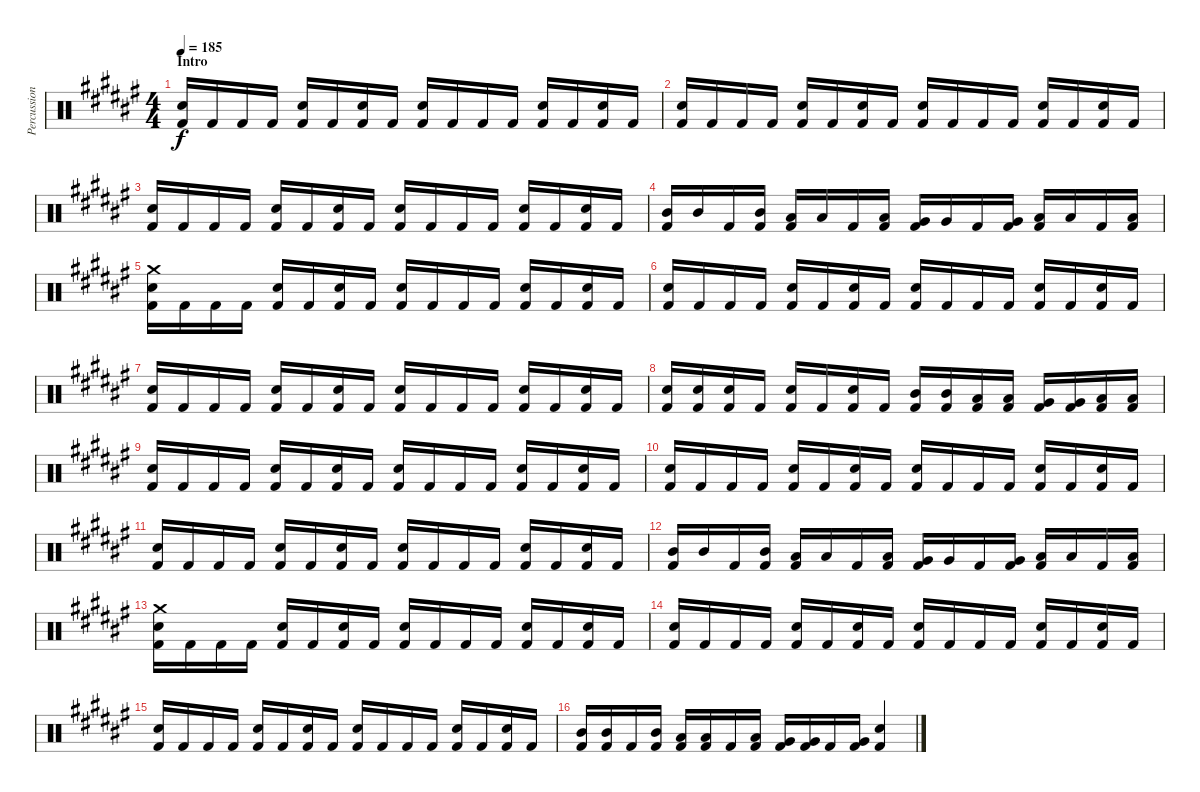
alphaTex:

\track ("Percussion" "Percussion") {instrument percussion}
\staff {score}
\articulation defaults
\ts (4 4)
\section ("" "Intro")
\tempo 185
\clef neutral
\ks d#minor
("Electric Snare (hit)" "Kick (hit) 2").16{dy f} "Kick (hit) 2".16 "Kick (hit) 2".16 "Kick (hit) 2".16 ("Electric Snare (hit)" "Kick (hit) 2").16 "Kick (hit) 2".16 ("Electric Snare (hit)" "Kick (hit) 2").16 "Kick (hit) 2".16 ("Electric Snare (hit)" "Kick (hit) 2").16 "Kick (hit) 2".16 "Kick (hit) 2".16 "Kick (hit) 2".16 ("Electric Snare (hit)" "Kick (hit) 2").16 "Kick (hit) 2".16 ("Electric Snare (hit)" "Kick (hit) 2").16 "Kick (hit) 2".16 |
("Electric Snare (hit)" "Kick (hit) 2").16 "Kick (hit) 2".16 "Kick (hit) 2".16 "Kick (hit) 2".16 ("Electric Snare (hit)" "Kick (hit) 2").16 "Kick (hit) 2".16 ("Electric Snare (hit)" "Kick (hit) 2").16 "Kick (hit) 2".16 ("Electric Snare (hit)" "Kick (hit) 2").16 "Kick (hit) 2".16 "Kick (hit) 2".16 "Kick (hit) 2".16 ("Electric Snare (hit)" "Kick (hit) 2").16 "Kick (hit) 2".16 ("Electric Snare (hit)" "Kick (hit) 2").16 "Kick (hit) 2".16 |
("Electric Snare (hit)" "Kick (hit) 2").16 "Kick (hit) 2".16 "Kick (hit) 2".16 "Kick (hit) 2".16 ("Electric Snare (hit)" "Kick (hit) 2").16 "Kick (hit) 2".16 ("Electric Snare (hit)" "Kick (hit) 2").16 "Kick (hit) 2".16 ("Electric Snare (hit)" "Kick (hit) 2").16 "Kick (hit) 2".16 "Kick (hit) 2".16 "Kick (hit) 2".16 ("Electric Snare (hit)" "Kick (hit) 2").16 "Kick (hit) 2".16 ("Electric Snare (hit)" "Kick (hit) 2").16 "Kick (hit) 2".16 |
("Mid Tom (hit)" "Kick (hit) 2").16 "Mid Tom (hit)".16 "Kick (hit) 2".16 ("Mid Tom (hit)" "Kick (hit) 2").16 ("Low Tom (hit)" "Kick (hit) 2").16 "Low Tom (hit)".16 "Kick (hit) 2".16 ("Low Tom (hit)" "Kick (hit) 2").16 ("Very Low Tom (hit)" "Kick (hit) 2").16 "Very Low Tom (hit)".16 "Kick (hit) 2".16 ("Very Low Tom (hit)" "Kick (hit) 2").16 ("Low Floor Tom (hit)" "Kick (hit) 2").16 "Low Floor Tom (hit)".16 "Kick (hit) 2".16 ("Low Floor Tom (hit)" "Kick (hit) 2").16 |
("Crash medium (hit)" "Electric Snare (hit)" "Kick (hit) 2").16 "Kick (hit) 2".16 "Kick (hit) 2".16 "Kick (hit) 2".16 ("Electric Snare (hit)" "Kick (hit) 2").16 "Kick (hit) 2".16 ("Electric Snare (hit)" "Kick (hit) 2").16 "Kick (hit) 2".16 ("Electric Snare (hit)" "Kick (hit) 2").16 "Kick (hit) 2".16 "Kick (hit) 2".16 "Kick (hit) 2".16 ("Electric Snare (hit)" "Kick (hit) 2").16 "Kick (hit) 2".16 ("Electric Snare (hit)" "Kick (hit) 2").16 "Kick (hit) 2".16 |
("Electric Snare (hit)" "Kick (hit) 2").16 "Kick (hit) 2".16 "Kick (hit) 2".16 "Kick (hit) 2".16 ("Electric Snare (hit)" "Kick (hit) 2").16 "Kick (hit) 2".16 ("Electric Snare (hit)" "Kick (hit) 2").16 "Kick (hit) 2".16 ("Electric Snare (hit)" "Kick (hit) 2").16 "Kick (hit) 2".16 "Kick (hit) 2".16 "Kick (hit) 2".16 ("Electric Snare (hit)" "Kick (hit) 2").16 "Kick (hit) 2".16 ("Electric Snare (hit)" "Kick (hit) 2").16 "Kick (hit) 2".16 |
("Electric Snare (hit)" "Kick (hit) 2").16 "Kick (hit) 2".16 "Kick (hit) 2".16 "Kick (hit) 2".16 ("Electric Snare (hit)" "Kick (hit) 2").16 "Kick (hit) 2".16 ("Electric Snare (hit)" "Kick (hit) 2").16 "Kick (hit) 2".16 ("Electric Snare (hit)" "Kick (hit) 2").16 "Kick (hit) 2".16 "Kick (hit) 2".16 "Kick (hit) 2".16 ("Electric Snare (hit)" "Kick (hit) 2").16 "Kick (hit) 2".16 ("Electric Snare (hit)" "Kick (hit) 2").16 "Kick (hit) 2".16 |
("Electric Snare (hit)" "Kick (hit) 2").16 ("Electric Snare (hit)" "Kick (hit) 2").16 ("Electric Snare (hit)" "Kick (hit) 2").16 "Kick (hit) 2".16 ("Electric Snare (hit)" "Kick (hit) 2").16 "Kick (hit) 2".16 ("Electric Snare (hit)" "Kick (hit) 2").16 "Kick (hit) 2".16 ("Mid Tom (hit)" "Kick (hit) 2").16 ("Mid Tom (hit)" "Kick (hit) 2").16 ("Low Tom (hit)" "Kick (hit) 2").16 ("Low Tom (hit)" "Kick (hit) 2").16 ("Very Low Tom (hit)" "Kick (hit) 2").16 ("Very Low Tom (hit)" "Kick (hit) 2").16 ("Low Floor Tom (hit)" "Kick (hit) 2").16 ("Low Floor Tom (hit)" "Kick (hit) 2").16 |
("Electric Snare (hit)" "Kick (hit) 2").16 "Kick (hit) 2".16 "Kick (hit) 2".16 "Kick (hit) 2".16 ("Electric Snare (hit)" "Kick (hit) 2").16 "Kick (hit) 2".16 ("Electric Snare (hit)" "Kick (hit) 2").16 "Kick (hit) 2".16 ("Electric Snare (hit)" "Kick (hit) 2").16 "Kick (hit) 2".16 "Kick (hit) 2".16 "Kick (hit) 2".16 ("Electric Snare (hit)" "Kick (hit) 2").16 "Kick (hit) 2".16 ("Electric Snare (hit)" "Kick (hit) 2").16 "Kick (hit) 2".16 |
("Electric Snare (hit)" "Kick (hit) 2").16 "Kick (hit) 2".16 "Kick (hit) 2".16 "Kick (hit) 2".16 ("Electric Snare (hit)" "Kick (hit) 2").16 "Kick (hit) 2".16 ("Electric Snare (hit)" "Kick (hit) 2").16 "Kick (hit) 2".16 ("Electric Snare (hit)" "Kick (hit) 2").16 "Kick (hit) 2".16 "Kick (hit) 2".16 "Kick (hit) 2".16 ("Electric Snare (hit)" "Kick (hit) 2").16 "Kick (hit) 2".16 ("Electric Snare (hit)" "Kick (hit) 2").16 "Kick (hit) 2".16 |
("Electric Snare (hit)" "Kick (hit) 2").16 "Kick (hit) 2".16 "Kick (hit) 2".16 "Kick (hit) 2".16 ("Electric Snare (hit)" "Kick (hit) 2").16 "Kick (hit) 2".16 ("Electric Snare (hit)" "Kick (hit) 2").16 "Kick (hit) 2".16 ("Electric Snare (hit)" "Kick (hit) 2").16 "Kick (hit) 2".16 "Kick (hit) 2".16 "Kick (hit) 2".16 ("Electric Snare (hit)" "Kick (hit) 2").16 "Kick (hit) 2".16 ("Electric Snare (hit)" "Kick (hit) 2").16 "Kick (hit) 2".16 |
("Mid Tom (hit)" "Kick (hit) 2").16 "Mid Tom (hit)".16 "Kick (hit) 2".16 ("Mid Tom (hit)" "Kick (hit) 2").16 ("Low Tom (hit)" "Kick (hit) 2").16 "Low Tom (hit)".16 "Kick (hit) 2".16 ("Low Tom (hit)" "Kick (hit) 2").16 ("Very Low Tom (hit)" "Kick (hit) 2").16 "Very Low Tom (hit)".16 "Kick (hit) 2".16 ("Very Low Tom (hit)" "Kick (hit) 2").16 ("Low Floor Tom (hit)" "Kick (hit) 2").16 "Low Floor Tom (hit)".16 "Kick (hit) 2".16 ("Low Floor Tom (hit)" "Kick (hit) 2").16 |
("Crash medium (hit)" "Electric Snare (hit)" "Kick (hit) 2").16 "Kick (hit) 2".16 "Kick (hit) 2".16 "Kick (hit) 2".16 ("Electric Snare (hit)" "Kick (hit) 2").16 "Kick (hit) 2".16 ("Electric Snare (hit)" "Kick (hit) 2").16 "Kick (hit) 2".16 ("Electric Snare (hit)" "Kick (hit) 2").16 "Kick (hit) 2".16 "Kick (hit) 2".16 "Kick (hit) 2".16 ("Electric Snare (hit)" "Kick (hit) 2").16 "Kick (hit) 2".16 ("Electric Snare (hit)" "Kick (hit) 2").16 "Kick (hit) 2".16 |
("Electric Snare (hit)" "Kick (hit) 2").16 "Kick (hit) 2".16 "Kick (hit) 2".16 "Kick (hit) 2".16 ("Electric Snare (hit)" "Kick (hit) 2").16 "Kick (hit) 2".16 ("Electric Snare (hit)" "Kick (hit) 2").16 "Kick (hit) 2".16 ("Electric Snare (hit)" "Kick (hit) 2").16 "Kick (hit) 2".16 "Kick (hit) 2".16 "Kick (hit) 2".16 ("Electric Snare (hit)" "Kick (hit) 2").16 "Kick (hit) 2".16 ("Electric Snare (hit)" "Kick (hit) 2").16 "Kick (hit) 2".16 |
("Electric Snare (hit)" "Kick (hit) 2").16 "Kick (hit) 2".16 "Kick (hit) 2".16 "Kick (hit) 2".16 ("Electric Snare (hit)" "Kick (hit) 2").16 "Kick (hit) 2".16 ("Electric Snare (hit)" "Kick (hit) 2").16 "Kick (hit) 2".16 ("Electric Snare (hit)" "Kick (hit) 2").16 "Kick (hit) 2".16 "Kick (hit) 2".16 "Kick (hit) 2".16 ("Electric Snare (hit)" "Kick (hit) 2").16 "Kick (hit) 2".16 ("Electric Snare (hit)" "Kick (hit) 2").16 "Kick (hit) 2".16 |
("Mid Tom (hit)" "Kick (hit) 2").16 ("Mid Tom (hit)" "Kick (hit) 2").16 "Kick (hit) 2".16 ("Mid Tom (hit)" "Kick (hit) 2").16 ("Low Tom (hit)" "Kick (hit) 2").16 ("Low Tom (hit)" "Kick (hit) 2").16 "Kick (hit) 2".16 ("Low Tom (hit)" "Kick (hit) 2").16 ("Very Low Tom (hit)" "Kick (hit) 2").16 ("Very Low Tom (hit)" "Kick (hit) 2").16 "Kick (hit) 2".16 ("Very Low Tom (hit)" "Kick (hit) 2").16 ("Snare (hit) 2" "Kick (hit) 2").4
